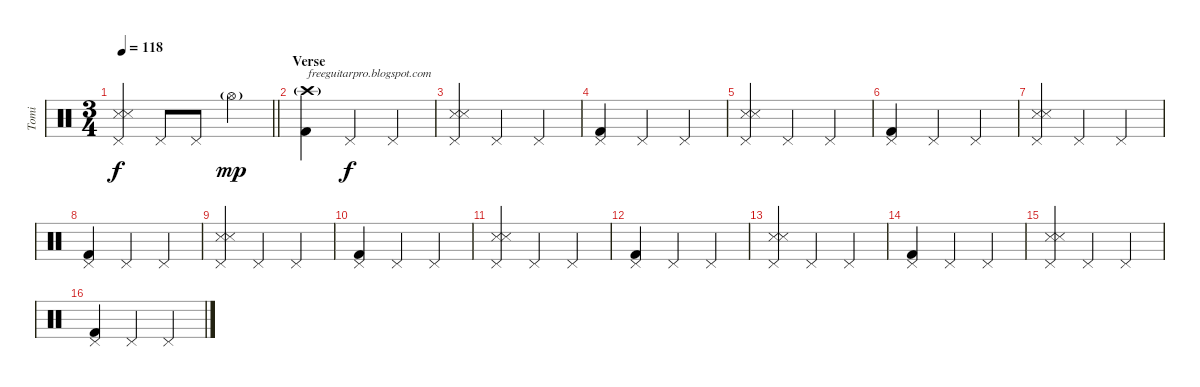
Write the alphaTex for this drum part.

\track ("Tomi" "Tomi") {instrument percussion}
\staff {score}
\articulation defaults
\ts (3 4)
\tempo 118
\clef neutral
\barLineRight lightlight
\ks c
("Snare (side stick) 3" "Pedal Hi-Hat (hit)" "Snare (side stick) 3").4{dy f} "Pedal Hi-Hat (hit)".8 "Pedal Hi-Hat (hit)".8 "Hi-Hat (open)"{g}.4{dy mp} |
\section ("" "Verse")
("Crash high (hit)"{g} "Kick (hit) 2").4{txt "freeguitarpro.blogspot.com"} "Pedal Hi-Hat (hit)".4{dy f} "Pedal Hi-Hat (hit)".4 |
("Snare (side stick) 3" "Pedal Hi-Hat (hit)" "Snare (side stick) 3").4 "Pedal Hi-Hat (hit)".4 "Pedal Hi-Hat (hit)".4 |
("Pedal Hi-Hat (hit)" "Kick (hit) 2").4 "Pedal Hi-Hat (hit)".4 "Pedal Hi-Hat (hit)".4 |
("Snare (side stick) 3" "Pedal Hi-Hat (hit)" "Snare (side stick) 3").4 "Pedal Hi-Hat (hit)".4 "Pedal Hi-Hat (hit)".4 |
("Pedal Hi-Hat (hit)" "Kick (hit) 2").4 "Pedal Hi-Hat (hit)".4 "Pedal Hi-Hat (hit)".4 |
("Snare (side stick) 3" "Pedal Hi-Hat (hit)" "Snare (side stick) 3").4 "Pedal Hi-Hat (hit)".4 "Pedal Hi-Hat (hit)".4 |
("Pedal Hi-Hat (hit)" "Kick (hit) 2").4 "Pedal Hi-Hat (hit)".4 "Pedal Hi-Hat (hit)".4 |
("Snare (side stick) 3" "Pedal Hi-Hat (hit)" "Snare (side stick) 3").4 "Pedal Hi-Hat (hit)".4 "Pedal Hi-Hat (hit)".4 |
("Pedal Hi-Hat (hit)" "Kick (hit) 2").4 "Pedal Hi-Hat (hit)".4 "Pedal Hi-Hat (hit)".4 |
("Snare (side stick) 3" "Pedal Hi-Hat (hit)" "Snare (side stick) 3").4 "Pedal Hi-Hat (hit)".4 "Pedal Hi-Hat (hit)".4 |
("Pedal Hi-Hat (hit)" "Kick (hit) 2").4 "Pedal Hi-Hat (hit)".4 "Pedal Hi-Hat (hit)".4 |
("Snare (side stick) 3" "Pedal Hi-Hat (hit)" "Snare (side stick) 3").4 "Pedal Hi-Hat (hit)".4 "Pedal Hi-Hat (hit)".4 |
("Pedal Hi-Hat (hit)" "Kick (hit) 2").4 "Pedal Hi-Hat (hit)".4 "Pedal Hi-Hat (hit)".4 |
("Snare (side stick) 3" "Pedal Hi-Hat (hit)" "Snare (side stick) 3").4 "Pedal Hi-Hat (hit)".4 "Pedal Hi-Hat (hit)".4 |
("Pedal Hi-Hat (hit)" "Kick (hit) 2").4 "Pedal Hi-Hat (hit)".4 "Pedal Hi-Hat (hit)".4
